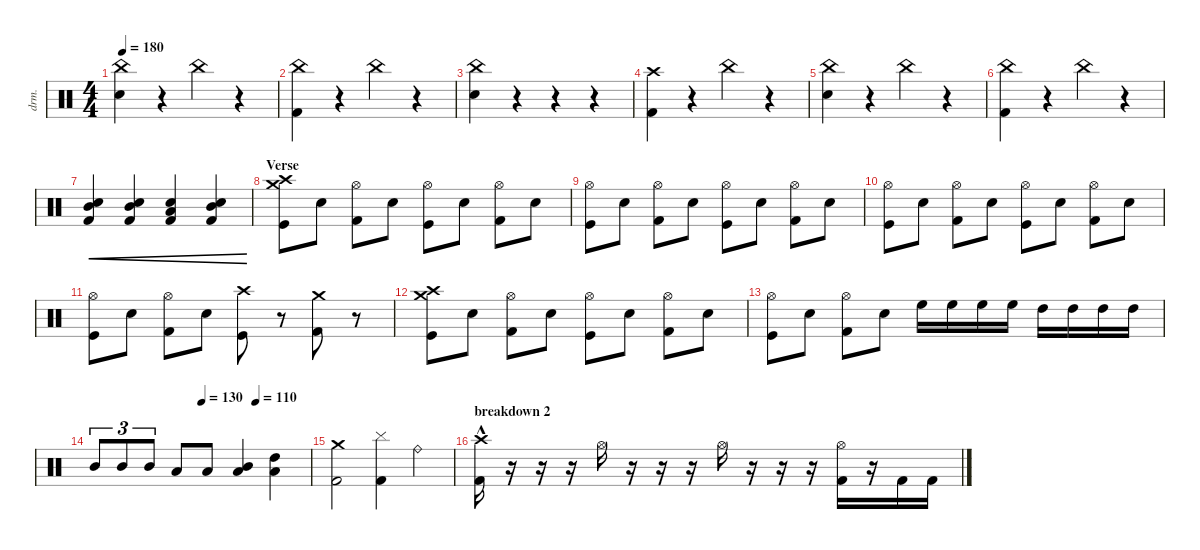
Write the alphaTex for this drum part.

\defaultSystemsLayout 4
\hideDynamics
\bracketExtendMode nobrackets
\otherSystemsTrackNameOrientation horizontal
\track ("Joosep" "drm.") {instrument percussion}
\staff {score}
\articulation defaults
\ts (4 4)
\tempo 180
\clef neutral
\ks c
("Snare (hit) 2" "China (hit)").4{dy mf beam Down} r.4{beam Down} "China (hit)".4{beam Down} r.4{beam Down} |
("Kick (hit) 2" "China (hit)").4{beam Down} r.4{beam Down} "China (hit)".4{beam Down} r.4{beam Down} |
("Snare (hit) 2" "China (hit)").4{beam Down} r.4{beam Down} r.4{beam Down} r.4{beam Down} |
("Kick (hit) 2" "Crash high (hit)").4{beam Down} r.4{beam Down} "China (hit)".4{beam Down} r.4{beam Down} |
("Snare (hit) 2" "China (hit)").4{beam Down} r.4{beam Down} "China (hit)".4{beam Down} r.4{beam Down} |
("Kick (hit) 2" "China (hit)").4{beam Down} r.4{beam Down} "China (hit)".4{beam Down} r.4{beam Down} |
("Kick (hit) 2" "Mid Tom (hit)" "Snare (hit) 2").4{cre beam Up} ("Kick (hit) 2" "Snare (hit) 2" "Mid Tom (hit)").4{cre beam Up} ("Kick (hit) 2" "Low Tom (hit)" "Snare (hit) 2").4{cre beam Up} ("Kick (hit) 2" "Snare (hit) 2" "Mid Tom (hit)").4{cre beam Up} |
\section ("" "Verse")
("Kick (hit)" "Crash high (hit)" "Crash medium (hit)").8{beam Down} "Snare (hit) 2".8{beam Down} ("Hi-Hat (open)" "Kick (hit) 2").8{beam Down} "Snare (hit) 2".8{beam Down} ("Kick (hit)" "Hi-Hat (open)").8{beam Down} "Snare (hit) 2".8{beam Down} ("Hi-Hat (open)" "Kick (hit) 2").8{beam Down} "Snare (hit) 2".8{beam Down} |
("Kick (hit)" "Hi-Hat (open)").8{beam Down} "Snare (hit) 2".8{beam Down} ("Hi-Hat (open)" "Kick (hit) 2").8{beam Down} "Snare (hit) 2".8{beam Down} ("Kick (hit)" "Hi-Hat (open)").8{beam Down} "Snare (hit) 2".8{beam Down} ("Hi-Hat (open)" "Kick (hit) 2").8{beam Down} "Snare (hit) 2".8{beam Down} |
("Kick (hit)" "Hi-Hat (open)").8{beam Down} "Snare (hit) 2".8{beam Down} ("Hi-Hat (open)" "Kick (hit) 2").8{beam Down} "Snare (hit) 2".8{beam Down} ("Kick (hit)" "Hi-Hat (open)").8{beam Down} "Snare (hit) 2".8{beam Down} ("Hi-Hat (open)" "Kick (hit) 2").8{beam Down} "Snare (hit) 2".8{beam Down} |
("Kick (hit)" "Hi-Hat (open)").8{beam Down} "Snare (hit) 2".8{beam Down} ("Hi-Hat (open)" "Kick (hit) 2").8{beam Down} "Snare (hit) 2".8{beam Down} ("Kick (hit)" "Crash high (hit)").8{beam Down} r.8{beam Down} ("Kick (hit) 2" "Crash medium (hit)").8{beam Down} r.8{beam Down} |
("Kick (hit)" "Crash high (hit)" "Crash medium (hit)").8{beam Down} "Snare (hit) 2".8{beam Down} ("Hi-Hat (open)" "Kick (hit) 2").8{beam Down} "Snare (hit) 2".8{beam Down} ("Kick (hit)" "Hi-Hat (open)").8{beam Down} "Snare (hit) 2".8{beam Down} ("Hi-Hat (open)" "Kick (hit) 2").8{beam Down} "Snare (hit) 2".8{beam Down} |
("Kick (hit)" "Hi-Hat (open)").8{beam Down} "Snare (hit) 2".8{beam Down} ("Hi-Hat (open)" "Kick (hit) 2").8{beam Down} "Snare (hit) 2".8{beam Down} "High Floor Tom (hit)".16{beam Down} "High Floor Tom (hit)".16{beam Down} "High Floor Tom (hit)".16{beam Down} "High Floor Tom (hit)".16{beam Down} "High Tom (hit)".16{beam Down} "High Tom (hit)".16{beam Down} "High Tom (hit)".16{beam Down} "High Tom (hit)".16{beam Down} |
\tempo (130 0.5)
\tempo (110 0.75)
"Mid Tom (hit)".8{tu (3 2) beam Up} "Mid Tom (hit)".8{tu (3 2) beam Up} "Mid Tom (hit)".8{tu (3 2) beam Up} "Low Tom (hit)".8{beam Up} "Low Tom (hit)".8{beam Up} ("Mid Tom (hit)" "Low Tom (hit)").4{beam Up} ("Low Tom (hit)" "High Tom (hit)").4{beam Down} |
("Kick (hit) 2" "Crash medium (hit)").2{beam Down} ("Kick (hit) 2" "Cymbal (hit)").4{beam Down} "Ride (bell)".4{beam Down} |
\section ("" "breakdown 2")
("Kick (hit) 2"{hac} "Crash high (hit)").16{beam Down} r.16{beam Down} r.16{beam Down} r.16{beam Down} "Hi-Hat (open)".16{beam Down} r.16{beam Down} r.16{beam Down} r.16{beam Down} "Hi-Hat (open)".16{beam Down} r.16{beam Down} r.16{beam Down} r.16{beam Down} ("Hi-Hat (open)" "Kick (hit) 2").16{beam Down} r.16{beam Down} "Kick (hit) 2".16{beam Down} "Kick (hit) 2".16{beam Down}
